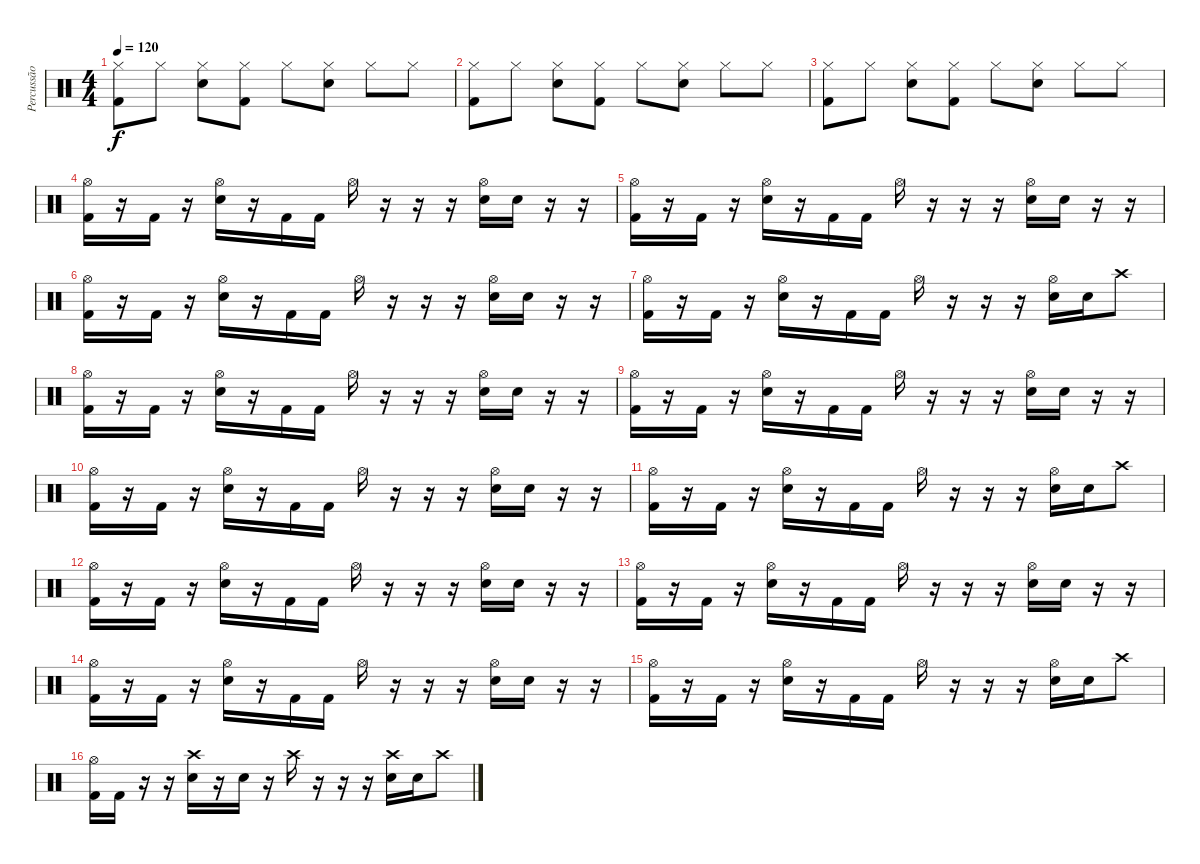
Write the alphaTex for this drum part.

\track ("Percussão" "Percussão") {instrument percussion}
\staff {score}
\articulation defaults
\ts (4 4)
\tempo 120
\clef neutral
\ks c
("Hi-Hat (closed)" "Kick (hit) 2").8{dy f} "Hi-Hat (closed)".8 ("Hi-Hat (closed)" "Electric Snare (hit)").8 ("Hi-Hat (closed)" "Kick (hit) 2").8 "Hi-Hat (closed)".8 ("Hi-Hat (closed)" "Electric Snare (hit)").8 "Hi-Hat (closed)".8 "Hi-Hat (closed)".8 |
("Hi-Hat (closed)" "Kick (hit) 2").8 "Hi-Hat (closed)".8 ("Hi-Hat (closed)" "Electric Snare (hit)").8 ("Hi-Hat (closed)" "Kick (hit) 2").8 "Hi-Hat (closed)".8 ("Hi-Hat (closed)" "Electric Snare (hit)").8 "Hi-Hat (closed)".8 "Hi-Hat (closed)".8 |
("Hi-Hat (closed)" "Kick (hit) 2").8 "Hi-Hat (closed)".8 ("Hi-Hat (closed)" "Electric Snare (hit)").8 ("Hi-Hat (closed)" "Kick (hit) 2").8 "Hi-Hat (closed)".8 ("Hi-Hat (closed)" "Electric Snare (hit)").8 "Hi-Hat (closed)".8 "Hi-Hat (closed)".8 |
("Hi-Hat (open)" "Kick (hit) 2").16 r.16 "Kick (hit) 2".16 r.16 ("Hi-Hat (open)" "Electric Snare (hit)").16 r.16 "Kick (hit) 2".16 "Kick (hit) 2".16 "Hi-Hat (open)".16 r.16 r.16 r.16 ("Hi-Hat (open)" "Electric Snare (hit)").16 "Electric Snare (hit)".16 r.16 r.16 |
("Hi-Hat (open)" "Kick (hit) 2").16 r.16 "Kick (hit) 2".16 r.16 ("Hi-Hat (open)" "Electric Snare (hit)").16 r.16 "Kick (hit) 2".16 "Kick (hit) 2".16 "Hi-Hat (open)".16 r.16 r.16 r.16 ("Hi-Hat (open)" "Electric Snare (hit)").16 "Electric Snare (hit)".16 r.16 r.16 |
("Hi-Hat (open)" "Kick (hit) 2").16 r.16 "Kick (hit) 2".16 r.16 ("Hi-Hat (open)" "Electric Snare (hit)").16 r.16 "Kick (hit) 2".16 "Kick (hit) 2".16 "Hi-Hat (open)".16 r.16 r.16 r.16 ("Hi-Hat (open)" "Electric Snare (hit)").16 "Electric Snare (hit)".16 r.16 r.16 |
("Hi-Hat (open)" "Kick (hit) 2").16 r.16 "Kick (hit) 2".16 r.16 ("Hi-Hat (open)" "Electric Snare (hit)").16 r.16 "Kick (hit) 2".16 "Kick (hit) 2".16 "Hi-Hat (open)".16 r.16 r.16 r.16 ("Hi-Hat (open)" "Electric Snare (hit)").16 "Electric Snare (hit)".16 "Crash high (hit)".8 |
("Hi-Hat (open)" "Kick (hit) 2").16 r.16 "Kick (hit) 2".16 r.16 ("Hi-Hat (open)" "Electric Snare (hit)").16 r.16 "Kick (hit) 2".16 "Kick (hit) 2".16 "Hi-Hat (open)".16 r.16 r.16 r.16 ("Hi-Hat (open)" "Electric Snare (hit)").16 "Electric Snare (hit)".16 r.16 r.16 |
("Hi-Hat (open)" "Kick (hit) 2").16 r.16 "Kick (hit) 2".16 r.16 ("Hi-Hat (open)" "Electric Snare (hit)").16 r.16 "Kick (hit) 2".16 "Kick (hit) 2".16 "Hi-Hat (open)".16 r.16 r.16 r.16 ("Hi-Hat (open)" "Electric Snare (hit)").16 "Electric Snare (hit)".16 r.16 r.16 |
("Hi-Hat (open)" "Kick (hit) 2").16 r.16 "Kick (hit) 2".16 r.16 ("Hi-Hat (open)" "Electric Snare (hit)").16 r.16 "Kick (hit) 2".16 "Kick (hit) 2".16 "Hi-Hat (open)".16 r.16 r.16 r.16 ("Hi-Hat (open)" "Electric Snare (hit)").16 "Electric Snare (hit)".16 r.16 r.16 |
("Hi-Hat (open)" "Kick (hit) 2").16 r.16 "Kick (hit) 2".16 r.16 ("Hi-Hat (open)" "Electric Snare (hit)").16 r.16 "Kick (hit) 2".16 "Kick (hit) 2".16 "Hi-Hat (open)".16 r.16 r.16 r.16 ("Hi-Hat (open)" "Electric Snare (hit)").16 "Electric Snare (hit)".16 "Crash high (hit)".8 |
("Hi-Hat (open)" "Kick (hit) 2").16 r.16 "Kick (hit) 2".16 r.16 ("Hi-Hat (open)" "Electric Snare (hit)").16 r.16 "Kick (hit) 2".16 "Kick (hit) 2".16 "Hi-Hat (open)".16 r.16 r.16 r.16 ("Hi-Hat (open)" "Electric Snare (hit)").16 "Electric Snare (hit)".16 r.16 r.16 |
("Hi-Hat (open)" "Kick (hit) 2").16 r.16 "Kick (hit) 2".16 r.16 ("Hi-Hat (open)" "Electric Snare (hit)").16 r.16 "Kick (hit) 2".16 "Kick (hit) 2".16 "Hi-Hat (open)".16 r.16 r.16 r.16 ("Hi-Hat (open)" "Electric Snare (hit)").16 "Electric Snare (hit)".16 r.16 r.16 |
("Hi-Hat (open)" "Kick (hit) 2").16 r.16 "Kick (hit) 2".16 r.16 ("Hi-Hat (open)" "Electric Snare (hit)").16 r.16 "Kick (hit) 2".16 "Kick (hit) 2".16 "Hi-Hat (open)".16 r.16 r.16 r.16 ("Hi-Hat (open)" "Electric Snare (hit)").16 "Electric Snare (hit)".16 r.16 r.16 |
("Hi-Hat (open)" "Kick (hit) 2").16 r.16 "Kick (hit) 2".16 r.16 ("Hi-Hat (open)" "Electric Snare (hit)").16 r.16 "Kick (hit) 2".16 "Kick (hit) 2".16 "Hi-Hat (open)".16 r.16 r.16 r.16 ("Hi-Hat (open)" "Electric Snare (hit)").16 "Electric Snare (hit)".16 "Crash high (hit)".8 |
("Hi-Hat (open)" "Kick (hit) 2").16 "Kick (hit) 2".16 r.16 r.16 ("Crash high (hit)" "Electric Snare (hit)").16 r.16 "Electric Snare (hit)".16 r.16 "Crash high (hit)".16 r.16 r.16 r.16 ("Crash high (hit)" "Electric Snare (hit)").16 "Electric Snare (hit)".16 "Crash high (hit)".8
